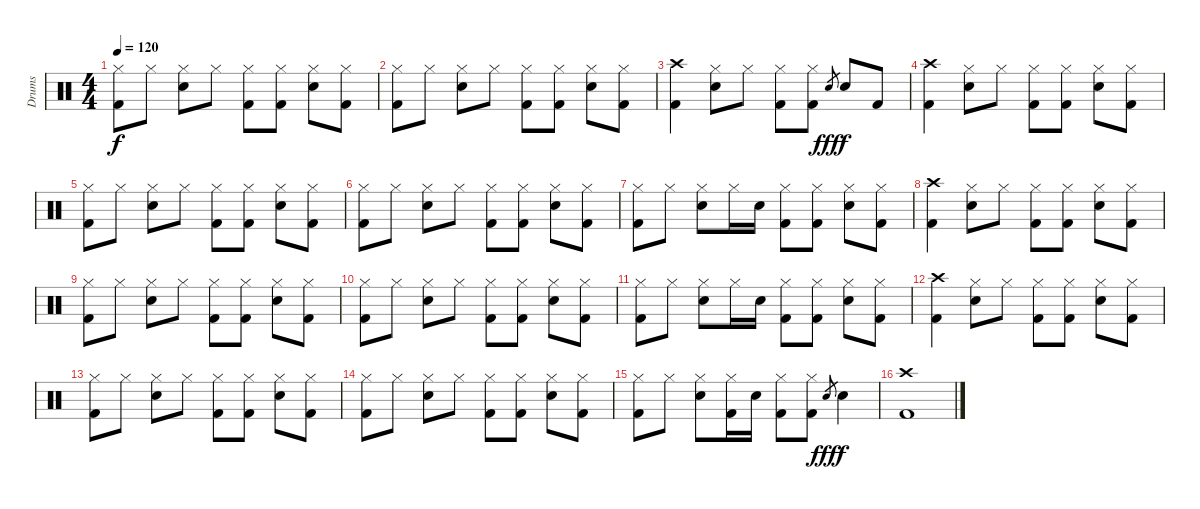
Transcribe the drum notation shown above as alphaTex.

\track ("Drums" "Drums") {instrument percussion}
\staff {score}
\articulation defaults
\ts (4 4)
\tempo 120
\clef neutral
\ks c
("Hi-Hat (closed)" "Kick (hit) 2").8{dy f} "Hi-Hat (closed)".8 ("Hi-Hat (closed)" "Electric Snare (hit)").8 "Hi-Hat (closed)".8 ("Hi-Hat (closed)" "Kick (hit) 2").8 ("Hi-Hat (closed)" "Kick (hit) 2").8 ("Hi-Hat (closed)" "Electric Snare (hit)").8 ("Hi-Hat (closed)" "Kick (hit) 2").8 |
("Hi-Hat (closed)" "Kick (hit) 2").8 "Hi-Hat (closed)".8 ("Hi-Hat (closed)" "Electric Snare (hit)").8 "Hi-Hat (closed)".8 ("Hi-Hat (closed)" "Kick (hit) 2").8 ("Hi-Hat (closed)" "Kick (hit) 2").8 ("Hi-Hat (closed)" "Electric Snare (hit)").8 ("Hi-Hat (closed)" "Kick (hit) 2").8 |
("Crash high (hit)" "Kick (hit) 2").4 ("Hi-Hat (closed)" "Electric Snare (hit)").8 "Hi-Hat (closed)".8 ("Hi-Hat (closed)" "Kick (hit) 2").8 ("Hi-Hat (closed)" "Kick (hit) 2").8 "Electric Snare (hit)".8{gr dy fff} "Electric Snare (hit)".8{dy f} "Kick (hit) 2".8 |
("Crash high (hit)" "Kick (hit) 2").4 ("Hi-Hat (closed)" "Electric Snare (hit)").8 "Hi-Hat (closed)".8 ("Hi-Hat (closed)" "Kick (hit) 2").8 ("Hi-Hat (closed)" "Kick (hit) 2").8 ("Hi-Hat (closed)" "Electric Snare (hit)").8 ("Hi-Hat (closed)" "Kick (hit) 2").8 |
("Hi-Hat (closed)" "Kick (hit) 2").8 "Hi-Hat (closed)".8 ("Hi-Hat (closed)" "Electric Snare (hit)").8 "Hi-Hat (closed)".8 ("Hi-Hat (closed)" "Kick (hit) 2").8 ("Hi-Hat (closed)" "Kick (hit) 2").8 ("Hi-Hat (closed)" "Electric Snare (hit)").8 ("Hi-Hat (closed)" "Kick (hit) 2").8 |
("Hi-Hat (closed)" "Kick (hit) 2").8 "Hi-Hat (closed)".8 ("Hi-Hat (closed)" "Electric Snare (hit)").8 "Hi-Hat (closed)".8 ("Hi-Hat (closed)" "Kick (hit) 2").8 ("Hi-Hat (closed)" "Kick (hit) 2").8 ("Hi-Hat (closed)" "Electric Snare (hit)").8 ("Hi-Hat (closed)" "Kick (hit) 2").8 |
("Hi-Hat (closed)" "Kick (hit) 2").8 "Hi-Hat (closed)".8 ("Hi-Hat (closed)" "Electric Snare (hit)").8 "Hi-Hat (closed)".16 "Electric Snare (hit)".16 ("Hi-Hat (closed)" "Kick (hit) 2").8 ("Hi-Hat (closed)" "Kick (hit) 2").8 ("Hi-Hat (closed)" "Electric Snare (hit)").8 ("Hi-Hat (closed)" "Kick (hit) 2").8 |
("Crash high (hit)" "Kick (hit) 2").4 ("Hi-Hat (closed)" "Electric Snare (hit)").8 "Hi-Hat (closed)".8 ("Hi-Hat (closed)" "Kick (hit) 2").8 ("Hi-Hat (closed)" "Kick (hit) 2").8 ("Hi-Hat (closed)" "Electric Snare (hit)").8 ("Hi-Hat (closed)" "Kick (hit) 2").8 |
("Hi-Hat (closed)" "Kick (hit) 2").8 "Hi-Hat (closed)".8 ("Hi-Hat (closed)" "Electric Snare (hit)").8 "Hi-Hat (closed)".8 ("Hi-Hat (closed)" "Kick (hit) 2").8 ("Hi-Hat (closed)" "Kick (hit) 2").8 ("Hi-Hat (closed)" "Electric Snare (hit)").8 ("Hi-Hat (closed)" "Kick (hit) 2").8 |
("Hi-Hat (closed)" "Kick (hit) 2").8 "Hi-Hat (closed)".8 ("Hi-Hat (closed)" "Electric Snare (hit)").8 "Hi-Hat (closed)".8 ("Hi-Hat (closed)" "Kick (hit) 2").8 ("Hi-Hat (closed)" "Kick (hit) 2").8 ("Hi-Hat (closed)" "Electric Snare (hit)").8 ("Hi-Hat (closed)" "Kick (hit) 2").8 |
("Hi-Hat (closed)" "Kick (hit) 2").8 "Hi-Hat (closed)".8 ("Hi-Hat (closed)" "Electric Snare (hit)").8 "Hi-Hat (closed)".16 "Electric Snare (hit)".16 ("Hi-Hat (closed)" "Kick (hit) 2").8 ("Hi-Hat (closed)" "Kick (hit) 2").8 ("Hi-Hat (closed)" "Electric Snare (hit)").8 ("Hi-Hat (closed)" "Kick (hit) 2").8 |
("Crash high (hit)" "Kick (hit) 2").4 ("Hi-Hat (closed)" "Electric Snare (hit)").8 "Hi-Hat (closed)".8 ("Hi-Hat (closed)" "Kick (hit) 2").8 ("Hi-Hat (closed)" "Kick (hit) 2").8 ("Hi-Hat (closed)" "Electric Snare (hit)").8 ("Hi-Hat (closed)" "Kick (hit) 2").8 |
("Hi-Hat (closed)" "Kick (hit) 2").8 "Hi-Hat (closed)".8 ("Hi-Hat (closed)" "Electric Snare (hit)").8 "Hi-Hat (closed)".8 ("Hi-Hat (closed)" "Kick (hit) 2").8 ("Hi-Hat (closed)" "Kick (hit) 2").8 ("Hi-Hat (closed)" "Electric Snare (hit)").8 ("Hi-Hat (closed)" "Kick (hit) 2").8 |
("Hi-Hat (closed)" "Kick (hit) 2").8 "Hi-Hat (closed)".8 ("Hi-Hat (closed)" "Electric Snare (hit)").8 "Hi-Hat (closed)".8 ("Hi-Hat (closed)" "Kick (hit) 2").8 ("Hi-Hat (closed)" "Kick (hit) 2").8 ("Hi-Hat (closed)" "Electric Snare (hit)").8 ("Hi-Hat (closed)" "Kick (hit) 2").8 |
("Hi-Hat (closed)" "Kick (hit) 2").8 "Hi-Hat (closed)".8 ("Hi-Hat (closed)" "Electric Snare (hit)").8 ("Hi-Hat (closed)" "Kick (hit) 2").16 "Electric Snare (hit)".16 ("Hi-Hat (closed)" "Kick (hit) 2").8 ("Hi-Hat (closed)" "Kick (hit) 2").8 "Electric Snare (hit)".8{gr dy fff} "Electric Snare (hit)".4{dy f} |
("Crash high (hit)" "Kick (hit) 2").1
